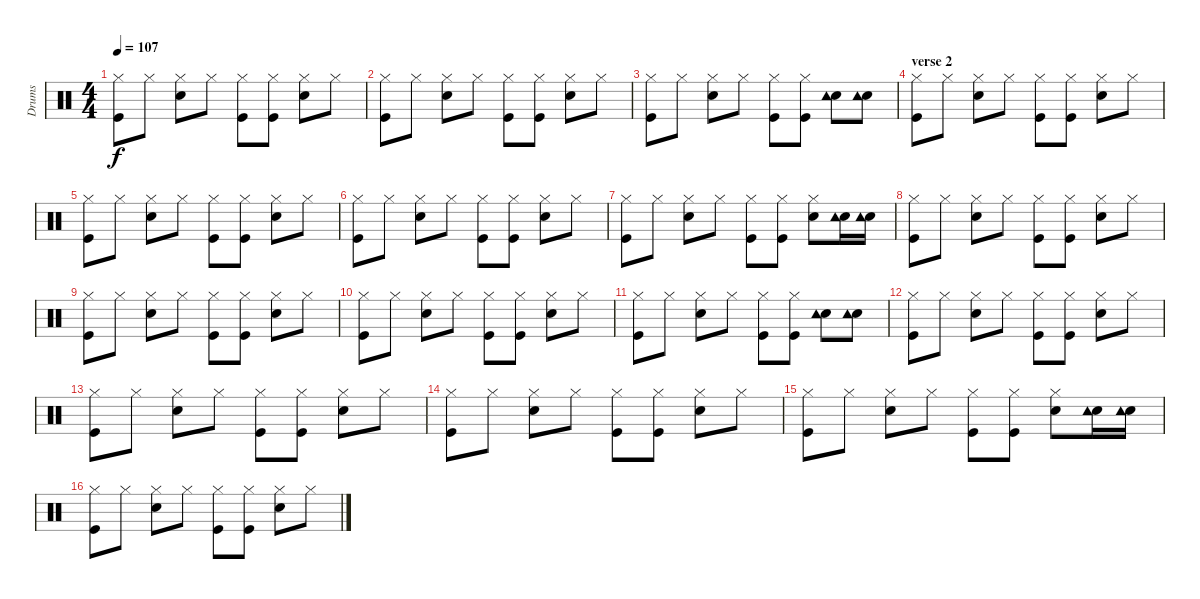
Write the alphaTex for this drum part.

\track ("Drums" "Drums") {instrument percussion}
\staff {score}
\articulation defaults
\ts (4 4)
\tempo 107
\clef neutral
\ks c
("Kick (hit)" "Hi-Hat (closed)").8{dy f} "Hi-Hat (closed)".8 ("Electric Snare (hit)" "Hi-Hat (closed)").8 "Hi-Hat (closed)".8 ("Kick (hit)" "Hi-Hat (closed)").8 ("Kick (hit)" "Hi-Hat (closed)").8 ("Electric Snare (hit)" "Hi-Hat (closed)").8 "Hi-Hat (closed)".8 |
("Kick (hit)" "Hi-Hat (closed)").8 "Hi-Hat (closed)".8 ("Electric Snare (hit)" "Hi-Hat (closed)").8 "Hi-Hat (closed)".8 ("Kick (hit)" "Hi-Hat (closed)").8 ("Kick (hit)" "Hi-Hat (closed)").8 ("Electric Snare (hit)" "Hi-Hat (closed)").8 "Hi-Hat (closed)".8 |
("Kick (hit)" "Hi-Hat (closed)").8 "Hi-Hat (closed)".8 ("Electric Snare (hit)" "Hi-Hat (closed)").8 "Hi-Hat (closed)".8 ("Kick (hit)" "Hi-Hat (closed)").8 ("Kick (hit)" "Hi-Hat (closed)").8 ("Electric Snare (hit)" "Tambourine (hit)").8 ("Electric Snare (hit)" "Tambourine (hit)").8 |
\section ("" "verse 2")
("Kick (hit)" "Hi-Hat (closed)").8 "Hi-Hat (closed)".8 ("Electric Snare (hit)" "Hi-Hat (closed)").8 "Hi-Hat (closed)".8 ("Kick (hit)" "Hi-Hat (closed)").8 ("Kick (hit)" "Hi-Hat (closed)").8 ("Electric Snare (hit)" "Hi-Hat (closed)").8 "Hi-Hat (closed)".8 |
("Kick (hit)" "Hi-Hat (closed)").8 "Hi-Hat (closed)".8 ("Electric Snare (hit)" "Hi-Hat (closed)").8 "Hi-Hat (closed)".8 ("Kick (hit)" "Hi-Hat (closed)").8 ("Kick (hit)" "Hi-Hat (closed)").8 ("Electric Snare (hit)" "Hi-Hat (closed)").8 "Hi-Hat (closed)".8 |
("Kick (hit)" "Hi-Hat (closed)").8 "Hi-Hat (closed)".8 ("Electric Snare (hit)" "Hi-Hat (closed)").8 "Hi-Hat (closed)".8 ("Kick (hit)" "Hi-Hat (closed)").8 ("Kick (hit)" "Hi-Hat (closed)").8 ("Electric Snare (hit)" "Hi-Hat (closed)").8 "Hi-Hat (closed)".8 |
("Kick (hit)" "Hi-Hat (closed)").8 "Hi-Hat (closed)".8 ("Electric Snare (hit)" "Hi-Hat (closed)").8 "Hi-Hat (closed)".8 ("Kick (hit)" "Hi-Hat (closed)").8 ("Kick (hit)" "Hi-Hat (closed)").8 ("Electric Snare (hit)" "Hi-Hat (closed)").8 ("Electric Snare (hit)" "Tambourine (hit)").16 ("Electric Snare (hit)" "Tambourine (hit)").16 |
("Kick (hit)" "Hi-Hat (closed)").8 "Hi-Hat (closed)".8 ("Electric Snare (hit)" "Hi-Hat (closed)").8 "Hi-Hat (closed)".8 ("Kick (hit)" "Hi-Hat (closed)").8 ("Kick (hit)" "Hi-Hat (closed)").8 ("Electric Snare (hit)" "Hi-Hat (closed)").8 "Hi-Hat (closed)".8 |
("Kick (hit)" "Hi-Hat (closed)").8 "Hi-Hat (closed)".8 ("Electric Snare (hit)" "Hi-Hat (closed)").8 "Hi-Hat (closed)".8 ("Kick (hit)" "Hi-Hat (closed)").8 ("Kick (hit)" "Hi-Hat (closed)").8 ("Electric Snare (hit)" "Hi-Hat (closed)").8 "Hi-Hat (closed)".8 |
("Kick (hit)" "Hi-Hat (closed)").8 "Hi-Hat (closed)".8 ("Electric Snare (hit)" "Hi-Hat (closed)").8 "Hi-Hat (closed)".8 ("Kick (hit)" "Hi-Hat (closed)").8 ("Kick (hit)" "Hi-Hat (closed)").8 ("Electric Snare (hit)" "Hi-Hat (closed)").8 "Hi-Hat (closed)".8 |
("Kick (hit)" "Hi-Hat (closed)").8 "Hi-Hat (closed)".8 ("Electric Snare (hit)" "Hi-Hat (closed)").8 "Hi-Hat (closed)".8 ("Kick (hit)" "Hi-Hat (closed)").8 ("Kick (hit)" "Hi-Hat (closed)").8 ("Electric Snare (hit)" "Tambourine (hit)").8 ("Electric Snare (hit)" "Tambourine (hit)").8 |
("Kick (hit)" "Hi-Hat (closed)").8 "Hi-Hat (closed)".8 ("Electric Snare (hit)" "Hi-Hat (closed)").8 "Hi-Hat (closed)".8 ("Kick (hit)" "Hi-Hat (closed)").8 ("Kick (hit)" "Hi-Hat (closed)").8 ("Electric Snare (hit)" "Hi-Hat (closed)").8 "Hi-Hat (closed)".8 |
("Kick (hit)" "Hi-Hat (closed)").8 "Hi-Hat (closed)".8 ("Electric Snare (hit)" "Hi-Hat (closed)").8 "Hi-Hat (closed)".8 ("Kick (hit)" "Hi-Hat (closed)").8 ("Kick (hit)" "Hi-Hat (closed)").8 ("Electric Snare (hit)" "Hi-Hat (closed)").8 "Hi-Hat (closed)".8 |
("Kick (hit)" "Hi-Hat (closed)").8 "Hi-Hat (closed)".8 ("Electric Snare (hit)" "Hi-Hat (closed)").8 "Hi-Hat (closed)".8 ("Kick (hit)" "Hi-Hat (closed)").8 ("Kick (hit)" "Hi-Hat (closed)").8 ("Electric Snare (hit)" "Hi-Hat (closed)").8 "Hi-Hat (closed)".8 |
("Kick (hit)" "Hi-Hat (closed)").8 "Hi-Hat (closed)".8 ("Electric Snare (hit)" "Hi-Hat (closed)").8 "Hi-Hat (closed)".8 ("Kick (hit)" "Hi-Hat (closed)").8 ("Kick (hit)" "Hi-Hat (closed)").8 ("Electric Snare (hit)" "Hi-Hat (closed)").8 ("Electric Snare (hit)" "Tambourine (hit)").16 ("Electric Snare (hit)" "Tambourine (hit)").16 |
("Kick (hit)" "Hi-Hat (closed)").8 "Hi-Hat (closed)".8 ("Electric Snare (hit)" "Hi-Hat (closed)").8 "Hi-Hat (closed)".8 ("Kick (hit)" "Hi-Hat (closed)").8 ("Kick (hit)" "Hi-Hat (closed)").8 ("Electric Snare (hit)" "Hi-Hat (closed)").8 "Hi-Hat (closed)".8
